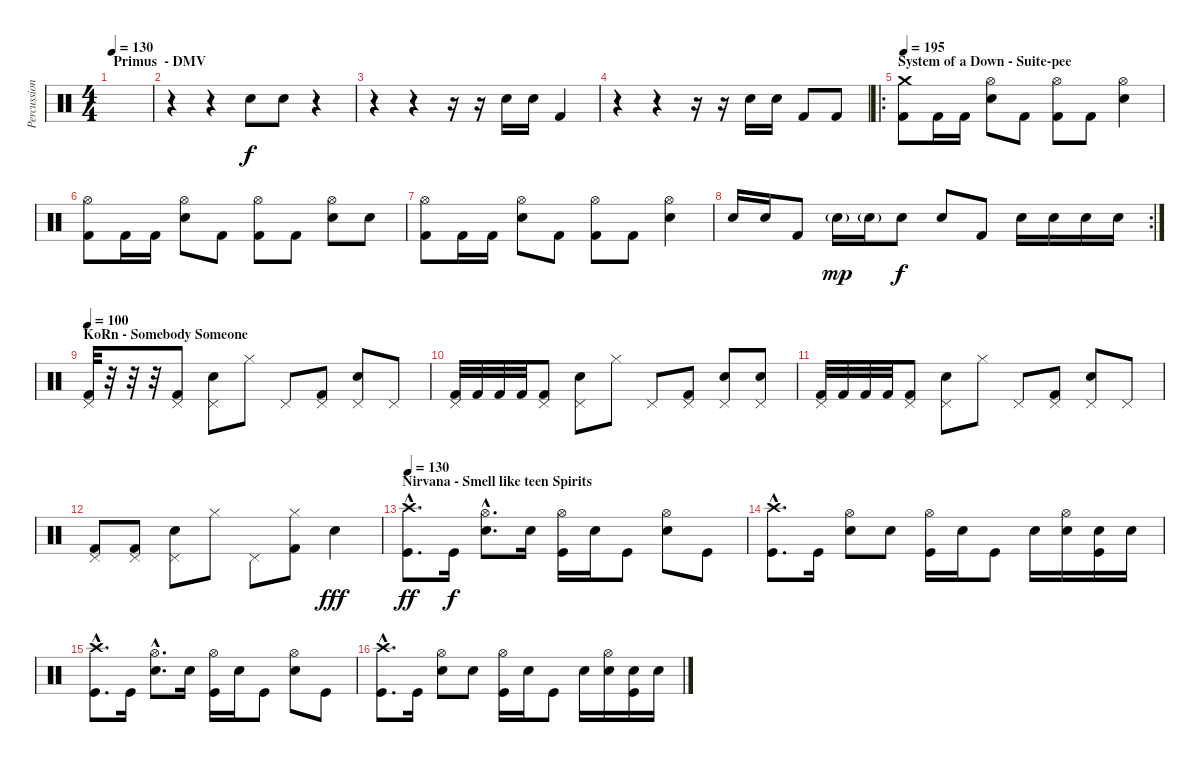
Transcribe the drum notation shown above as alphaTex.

\track ("Percussion" "Percussion") {instrument percussion}
\staff {score}
\articulation defaults
\ts (4 4)
\section ("" "Primus  - DMV")
\tempo 130
\clef neutral
\ks c
|
r.4 r.4 "Electric Snare (hit)".8 "Electric Snare (hit)".8 r.4 |
r.4 r.4 r.16 r.16 "Electric Snare (hit)".16 "Electric Snare (hit)".16 "Kick (hit) 2".4 |
r.4 r.4 r.16 r.16 "Electric Snare (hit)".16 "Electric Snare (hit)".16 "Kick (hit) 2".8 "Kick (hit) 2".8 |
\ro
\section ("" "System of a Down - Suite-pee")
\tempo 195
("Crash medium (hit)" "Kick (hit) 2").8 "Kick (hit) 2".16 "Kick (hit) 2".16 ("Hi-Hat (open)" "Electric Snare (hit)").8 "Kick (hit) 2".8 ("Hi-Hat (open)" "Kick (hit) 2").8 "Kick (hit) 2".8 ("Hi-Hat (open)" "Electric Snare (hit)").4 |
("Hi-Hat (open)" "Kick (hit) 2").8 "Kick (hit) 2".16 "Kick (hit) 2".16 ("Hi-Hat (open)" "Electric Snare (hit)").8 "Kick (hit) 2".8 ("Hi-Hat (open)" "Kick (hit) 2").8 "Kick (hit) 2".8 ("Hi-Hat (open)" "Electric Snare (hit)").8 "Electric Snare (hit)".8 |
("Hi-Hat (open)" "Kick (hit) 2").8 "Kick (hit) 2".16 "Kick (hit) 2".16 ("Hi-Hat (open)" "Electric Snare (hit)").8 "Kick (hit) 2".8 ("Hi-Hat (open)" "Kick (hit) 2").8 "Kick (hit) 2".8 ("Hi-Hat (open)" "Electric Snare (hit)").4 |
\rc 2 "Electric Snare (hit)".16 "Electric Snare (hit)".16 "Kick (hit) 2".8 "Electric Snare (hit)"{g}.16{dy mp} "Electric Snare (hit)"{g}.16 "Electric Snare (hit)".8{dy f} "Electric Snare (hit)".8 "Kick (hit) 2".8 "Electric Snare (hit)".16 "Electric Snare (hit)".16 "Electric Snare (hit)".16 "Electric Snare (hit)".16
|
\section ("" "KoRn - Somebody Someone")
\tempo 100
("Pedal Hi-Hat (hit)" "Kick (hit) 2").32 r.32 r.32 r.32 ("Pedal Hi-Hat (hit)" "Kick (hit) 2").8 ("Pedal Hi-Hat (hit)" "Electric Snare (hit)").8 "Hi-Hat (closed)".8 "Pedal Hi-Hat (hit)".8 ("Pedal Hi-Hat (hit)" "Kick (hit) 2").8 ("Pedal Hi-Hat (hit)" "Electric Snare (hit)").8 "Pedal Hi-Hat (hit)".8 |
("Pedal Hi-Hat (hit)" "Kick (hit) 2").32 "Kick (hit) 2".32 "Kick (hit) 2".32 "Kick (hit) 2".32 ("Pedal Hi-Hat (hit)" "Kick (hit) 2").8 ("Pedal Hi-Hat (hit)" "Electric Snare (hit)").8 "Hi-Hat (closed)".8 "Pedal Hi-Hat (hit)".8 ("Pedal Hi-Hat (hit)" "Kick (hit) 2").8 ("Pedal Hi-Hat (hit)" "Electric Snare (hit)").8 ("Pedal Hi-Hat (hit)" "Electric Snare (hit)").8 |
("Pedal Hi-Hat (hit)" "Kick (hit) 2").32 "Kick (hit) 2".32 "Kick (hit) 2".32 "Kick (hit) 2".32 ("Pedal Hi-Hat (hit)" "Kick (hit) 2").8 ("Pedal Hi-Hat (hit)" "Electric Snare (hit)").8 "Hi-Hat (closed)".8 "Pedal Hi-Hat (hit)".8 ("Pedal Hi-Hat (hit)" "Kick (hit) 2").8 ("Pedal Hi-Hat (hit)" "Electric Snare (hit)").8 "Pedal Hi-Hat (hit)".8 |
("Pedal Hi-Hat (hit)" "Kick (hit) 2").8 ("Pedal Hi-Hat (hit)" "Kick (hit) 2").8 ("Pedal Hi-Hat (hit)" "Electric Snare (hit)").8 "Hi-Hat (closed)".8 "Pedal Hi-Hat (hit)".8 ("Hi-Hat (closed)" "Kick (hit) 2").8 "Electric Snare (hit)".4{dy fff} |
\section ("" "Nirvana - Smell like teen Spirits")
\tempo 130
("Crash high (hit)"{hac} "Kick (hit)"{hac}).8{d dy ff} "Kick (hit)".16{dy f} ("Hi-Hat (open)"{hac} "Snare (hit) 2"{hac}).8{d} "Snare (hit) 2".16 ("Hi-Hat (open)" "Kick (hit)").16 "Snare (hit) 2".16 "Kick (hit)".8 ("Hi-Hat (open)" "Snare (hit) 2").8 "Kick (hit)".8 |
("Crash high (hit)"{hac} "Kick (hit)"{hac}).8{d} "Kick (hit)".16 ("Hi-Hat (open)" "Snare (hit) 2").8 "Snare (hit) 2".8 ("Hi-Hat (open)" "Kick (hit)").16 "Snare (hit) 2".16 "Kick (hit)".8 "Snare (hit) 2".16 ("Hi-Hat (open)" "Snare (hit) 2").16 ("Snare (hit) 2" "Kick (hit)").16 "Snare (hit) 2".16 |
("Crash high (hit)"{hac} "Kick (hit)"{hac}).8{d} "Kick (hit)".16 ("Hi-Hat (open)"{hac} "Snare (hit) 2"{hac}).8{d} "Snare (hit) 2".16 ("Hi-Hat (open)" "Kick (hit)").16 "Snare (hit) 2".16 "Kick (hit)".8 ("Hi-Hat (open)" "Snare (hit) 2").8 "Kick (hit)".8 |
("Crash high (hit)"{hac} "Kick (hit)"{hac}).8{d} "Kick (hit)".16 ("Hi-Hat (open)" "Snare (hit) 2").8 "Snare (hit) 2".8 ("Hi-Hat (open)" "Kick (hit)").16 "Snare (hit) 2".16 "Kick (hit)".8 "Snare (hit) 2".16 ("Hi-Hat (open)" "Snare (hit) 2").16 ("Snare (hit) 2" "Kick (hit)").16 "Snare (hit) 2".16
